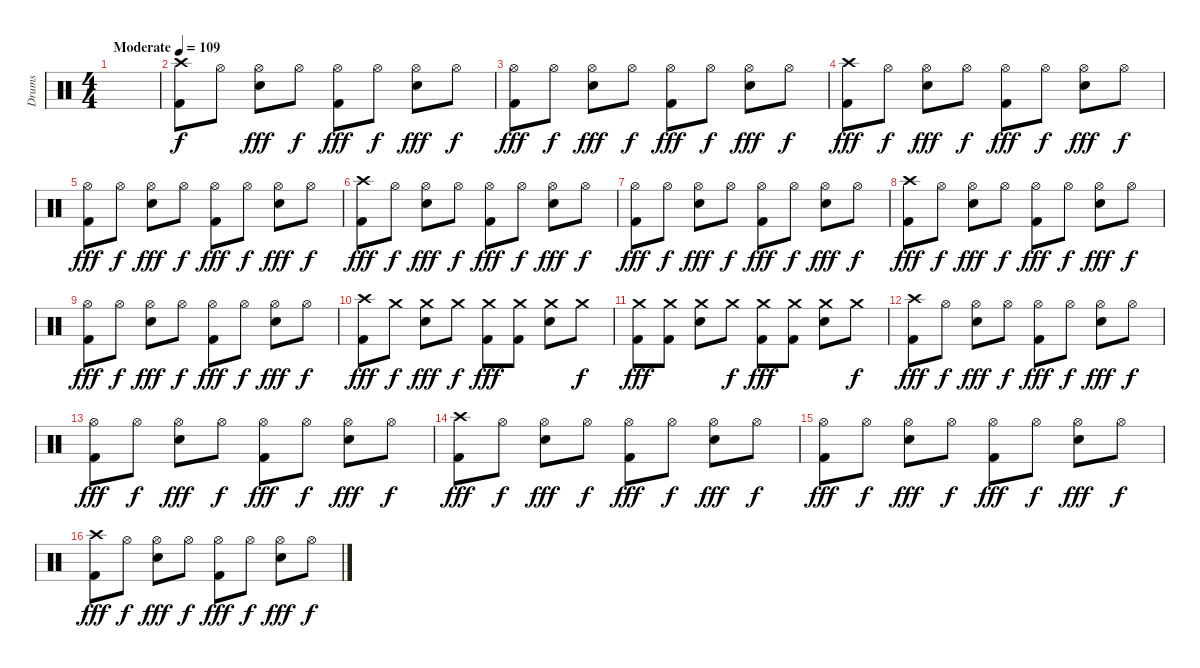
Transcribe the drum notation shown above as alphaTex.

\track ("Drums" "Drums") {instrument percussion}
\staff {score}
\articulation defaults
\ts (4 4)
\tempo (109 "Moderate")
\clef neutral
\ks c
|
("Crash high (hit)" "Kick (hit) 2").8 "Hi-Hat (open)".8{dy f} ("Hi-Hat (open)" "Electric Snare (hit)").8{dy fff} "Hi-Hat (open)".8{dy f} ("Hi-Hat (open)" "Kick (hit) 2").8{dy fff} "Hi-Hat (open)".8{dy f} ("Hi-Hat (open)" "Electric Snare (hit)").8{dy fff} "Hi-Hat (open)".8{dy f} |
("Hi-Hat (open)" "Kick (hit) 2").8{dy fff} "Hi-Hat (open)".8{dy f} ("Hi-Hat (open)" "Electric Snare (hit)").8{dy fff} "Hi-Hat (open)".8{dy f} ("Hi-Hat (open)" "Kick (hit) 2").8{dy fff} "Hi-Hat (open)".8{dy f} ("Hi-Hat (open)" "Electric Snare (hit)").8{dy fff} "Hi-Hat (open)".8{dy f} |
("Crash high (hit)" "Kick (hit) 2").8{dy fff} "Hi-Hat (open)".8{dy f} ("Hi-Hat (open)" "Electric Snare (hit)").8{dy fff} "Hi-Hat (open)".8{dy f} ("Hi-Hat (open)" "Kick (hit) 2").8{dy fff} "Hi-Hat (open)".8{dy f} ("Hi-Hat (open)" "Electric Snare (hit)").8{dy fff} "Hi-Hat (open)".8{dy f} |
("Hi-Hat (open)" "Kick (hit) 2").8{dy fff} "Hi-Hat (open)".8{dy f} ("Hi-Hat (open)" "Electric Snare (hit)").8{dy fff} "Hi-Hat (open)".8{dy f} ("Hi-Hat (open)" "Kick (hit) 2").8{dy fff} "Hi-Hat (open)".8{dy f} ("Hi-Hat (open)" "Electric Snare (hit)").8{dy fff} "Hi-Hat (open)".8{dy f} |
("Crash high (hit)" "Kick (hit) 2").8{dy fff} "Hi-Hat (open)".8{dy f} ("Hi-Hat (open)" "Electric Snare (hit)").8{dy fff} "Hi-Hat (open)".8{dy f} ("Hi-Hat (open)" "Kick (hit) 2").8{dy fff} "Hi-Hat (open)".8{dy f} ("Hi-Hat (open)" "Electric Snare (hit)").8{dy fff} "Hi-Hat (open)".8{dy f} |
("Hi-Hat (open)" "Kick (hit) 2").8{dy fff} "Hi-Hat (open)".8{dy f} ("Hi-Hat (open)" "Electric Snare (hit)").8{dy fff} "Hi-Hat (open)".8{dy f} ("Hi-Hat (open)" "Kick (hit) 2").8{dy fff} "Hi-Hat (open)".8{dy f} ("Hi-Hat (open)" "Electric Snare (hit)").8{dy fff} "Hi-Hat (open)".8{dy f} |
("Crash high (hit)" "Kick (hit) 2").8{dy fff} "Hi-Hat (open)".8{dy f} ("Hi-Hat (open)" "Electric Snare (hit)").8{dy fff} "Hi-Hat (open)".8{dy f} ("Hi-Hat (open)" "Kick (hit) 2").8{dy fff} "Hi-Hat (open)".8{dy f} ("Hi-Hat (open)" "Electric Snare (hit)").8{dy fff} "Hi-Hat (open)".8{dy f} |
("Hi-Hat (open)" "Kick (hit) 2").8{dy fff} "Hi-Hat (open)".8{dy f} ("Hi-Hat (open)" "Electric Snare (hit)").8{dy fff} "Hi-Hat (open)".8{dy f} ("Hi-Hat (open)" "Kick (hit) 2").8{dy fff} "Hi-Hat (open)".8{dy f} ("Hi-Hat (open)" "Electric Snare (hit)").8{dy fff} "Hi-Hat (open)".8{dy f} |
("Crash high (hit)" "Kick (hit) 2").8{dy fff} "Crash medium (hit)".8{dy f} ("Crash medium (hit)" "Electric Snare (hit)").8{dy fff} "Crash medium (hit)".8{dy f} ("Crash medium (hit)" "Kick (hit) 2").8{dy fff} ("Crash medium (hit)" "Kick (hit) 2").8 ("Crash medium (hit)" "Electric Snare (hit)").8 "Crash medium (hit)".8{dy f} |
("Crash medium (hit)" "Kick (hit) 2").8{dy fff} ("Crash medium (hit)" "Kick (hit) 2").8 ("Crash medium (hit)" "Electric Snare (hit)").8 "Crash medium (hit)".8{dy f} ("Crash medium (hit)" "Kick (hit) 2").8{dy fff} ("Crash medium (hit)" "Kick (hit) 2").8 ("Crash medium (hit)" "Electric Snare (hit)").8 "Crash medium (hit)".8{dy f} |
("Crash high (hit)" "Kick (hit) 2").8{dy fff} "Hi-Hat (open)".8{dy f} ("Hi-Hat (open)" "Electric Snare (hit)").8{dy fff} "Hi-Hat (open)".8{dy f} ("Hi-Hat (open)" "Kick (hit) 2").8{dy fff} "Hi-Hat (open)".8{dy f} ("Hi-Hat (open)" "Electric Snare (hit)").8{dy fff} "Hi-Hat (open)".8{dy f} |
("Hi-Hat (open)" "Kick (hit) 2").8{dy fff} "Hi-Hat (open)".8{dy f} ("Hi-Hat (open)" "Electric Snare (hit)").8{dy fff} "Hi-Hat (open)".8{dy f} ("Hi-Hat (open)" "Kick (hit) 2").8{dy fff} "Hi-Hat (open)".8{dy f} ("Hi-Hat (open)" "Electric Snare (hit)").8{dy fff} "Hi-Hat (open)".8{dy f} |
("Crash high (hit)" "Kick (hit) 2").8{dy fff} "Hi-Hat (open)".8{dy f} ("Hi-Hat (open)" "Electric Snare (hit)").8{dy fff} "Hi-Hat (open)".8{dy f} ("Hi-Hat (open)" "Kick (hit) 2").8{dy fff} "Hi-Hat (open)".8{dy f} ("Hi-Hat (open)" "Electric Snare (hit)").8{dy fff} "Hi-Hat (open)".8{dy f} |
("Hi-Hat (open)" "Kick (hit) 2").8{dy fff} "Hi-Hat (open)".8{dy f} ("Hi-Hat (open)" "Electric Snare (hit)").8{dy fff} "Hi-Hat (open)".8{dy f} ("Hi-Hat (open)" "Kick (hit) 2").8{dy fff} "Hi-Hat (open)".8{dy f} ("Hi-Hat (open)" "Electric Snare (hit)").8{dy fff} "Hi-Hat (open)".8{dy f} |
("Crash high (hit)" "Kick (hit) 2").8{dy fff} "Hi-Hat (open)".8{dy f} ("Hi-Hat (open)" "Electric Snare (hit)").8{dy fff} "Hi-Hat (open)".8{dy f} ("Hi-Hat (open)" "Kick (hit) 2").8{dy fff} "Hi-Hat (open)".8{dy f} ("Hi-Hat (open)" "Electric Snare (hit)").8{dy fff} "Hi-Hat (open)".8{dy f}
